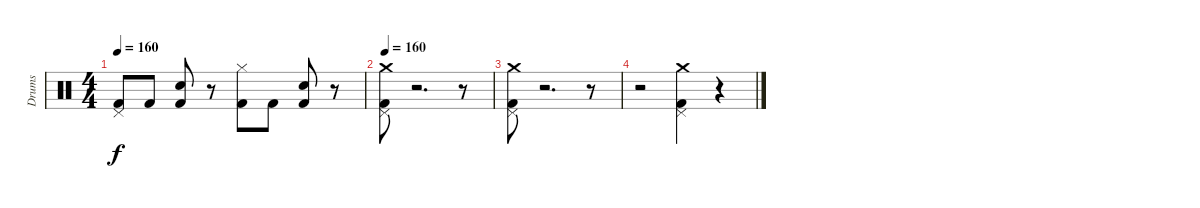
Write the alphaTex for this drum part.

\track ("Drums" "Drums") {instrument percussion}
\staff {score}
\articulation defaults
\ts (4 4)
\tempo 160
\clef neutral
\ks c
("Kick (hit) 2" "Pedal Hi-Hat (hit)").8{dy f} "Kick (hit) 2".8 ("Kick (hit) 2" "Snare (hit) 2").8 r.8 ("Kick (hit) 2" "Hi-Hat (closed)").8 "Kick (hit) 2".8 ("Kick (hit) 2" "Snare (hit) 2").8 r.8 |
\tempo 90
\tempo 160
("Kick (hit) 2" "Pedal Hi-Hat (hit)" "Crash medium (hit)").8 r.2{d} r.8 |
("Kick (hit) 2" "Pedal Hi-Hat (hit)" "Crash medium (hit)").8 r.2{d} r.8 |
r.2 ("Kick (hit) 2" "Pedal Hi-Hat (hit)" "Crash medium (hit)").4 r.4
